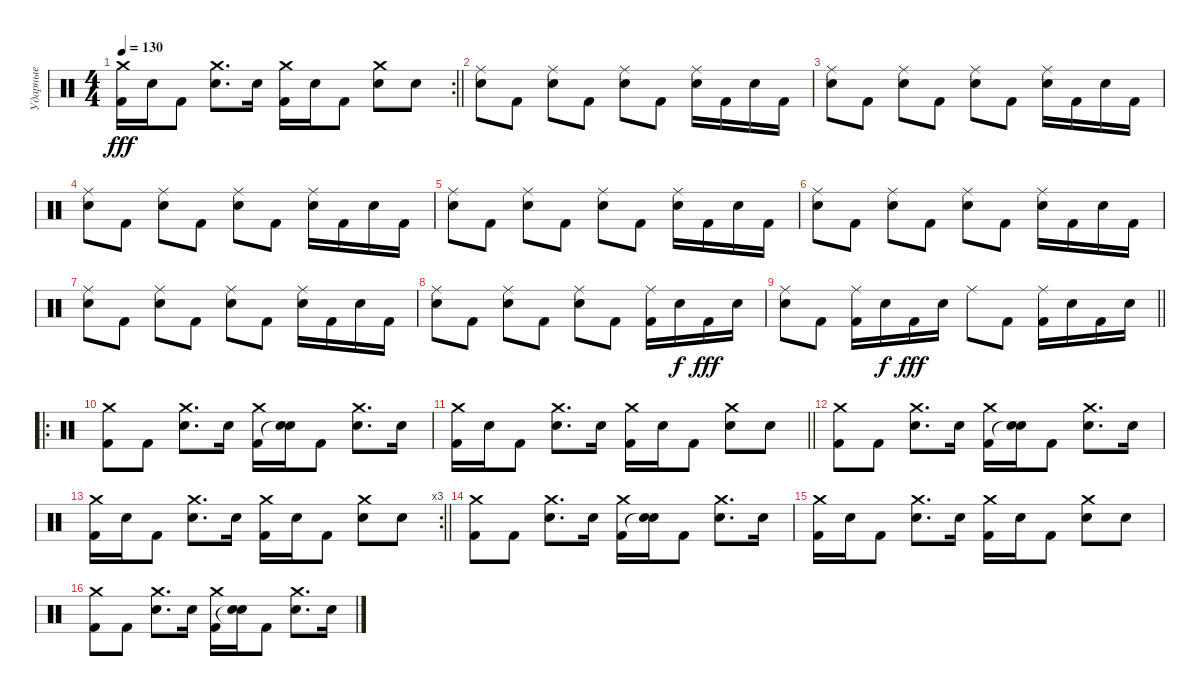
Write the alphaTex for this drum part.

\track ("Ударные" "Ударные") {instrument percussion}
\staff {score}
\articulation defaults
\rc 2
\ts (4 4)
\tempo 130
\clef neutral
\barLineRight lightlight
\ks c
("Crash medium (hit)" "Kick (hit) 2").16{dy fff} "Electric Snare (hit)".16 "Kick (hit) 2".8 ("Crash medium (hit)" "Electric Snare (hit)").8{d} "Electric Snare (hit)".16 ("Crash medium (hit)" "Kick (hit) 2").16 "Electric Snare (hit)".16 "Kick (hit) 2".8 ("Crash medium (hit)" "Electric Snare (hit)").8 "Electric Snare (hit)".8 |
("Ride (middle)" "Electric Snare (hit)").8 "Kick (hit) 2".8 ("Ride (middle)" "Electric Snare (hit)").8 "Kick (hit) 2".8 ("Ride (middle)" "Electric Snare (hit)").8 "Kick (hit) 2".8 ("Ride (middle)" "Electric Snare (hit)").16 "Kick (hit) 2".16 "Electric Snare (hit)".16 "Kick (hit) 2".16 |
("Ride (middle)" "Electric Snare (hit)").8 "Kick (hit) 2".8 ("Ride (middle)" "Electric Snare (hit)").8 "Kick (hit) 2".8 ("Ride (middle)" "Electric Snare (hit)").8 "Kick (hit) 2".8 ("Ride (middle)" "Electric Snare (hit)").16 "Kick (hit) 2".16 "Electric Snare (hit)".16 "Kick (hit) 2".16 |
("Ride (middle)" "Electric Snare (hit)").8 "Kick (hit) 2".8 ("Ride (middle)" "Electric Snare (hit)").8 "Kick (hit) 2".8 ("Ride (middle)" "Electric Snare (hit)").8 "Kick (hit) 2".8 ("Ride (middle)" "Electric Snare (hit)").16 "Kick (hit) 2".16 "Electric Snare (hit)".16 "Kick (hit) 2".16 |
("Ride (middle)" "Electric Snare (hit)").8 "Kick (hit) 2".8 ("Ride (middle)" "Electric Snare (hit)").8 "Kick (hit) 2".8 ("Ride (middle)" "Electric Snare (hit)").8 "Kick (hit) 2".8 ("Ride (middle)" "Electric Snare (hit)").16 "Kick (hit) 2".16 "Electric Snare (hit)".16 "Kick (hit) 2".16 |
("Ride (middle)" "Electric Snare (hit)").8 "Kick (hit) 2".8 ("Ride (middle)" "Electric Snare (hit)").8 "Kick (hit) 2".8 ("Ride (middle)" "Electric Snare (hit)").8 "Kick (hit) 2".8 ("Ride (middle)" "Electric Snare (hit)").16 "Kick (hit) 2".16 "Electric Snare (hit)".16 "Kick (hit) 2".16 |
("Ride (middle)" "Electric Snare (hit)").8 "Kick (hit) 2".8 ("Ride (middle)" "Electric Snare (hit)").8 "Kick (hit) 2".8 ("Ride (middle)" "Electric Snare (hit)").8 "Kick (hit) 2".8 ("Ride (middle)" "Electric Snare (hit)").16 "Kick (hit) 2".16 "Electric Snare (hit)".16 "Kick (hit) 2".16 |
("Ride (middle)" "Electric Snare (hit)").8 "Kick (hit) 2".8 ("Ride (middle)" "Electric Snare (hit)").8 "Kick (hit) 2".8 ("Ride (middle)" "Electric Snare (hit)").8 "Kick (hit) 2".8 ("Ride (middle)" "Kick (hit) 2").16 "Electric Snare (hit)".16{dy f} "Kick (hit) 2".16{dy fff} "Electric Snare (hit)".16 |
\barLineRight lightlight
("Ride (middle)" "Electric Snare (hit)").8 "Kick (hit) 2".8 ("Ride (middle)" "Kick (hit) 2").16 "Electric Snare (hit)".16{dy f} "Kick (hit) 2".16{dy fff} "Electric Snare (hit)".16 "Ride (middle)".8 "Kick (hit) 2".8 ("Ride (middle)" "Kick (hit) 2").16 "Electric Snare (hit)".16 "Kick (hit) 2".16 "Electric Snare (hit)".16 |
\ro
("Crash medium (hit)" "Kick (hit) 2").8 "Kick (hit) 2".8 ("Crash medium (hit)" "Electric Snare (hit)").8{d} "Electric Snare (hit)".16 ("Crash medium (hit)" "Kick (hit) 2").16 ("Electric Snare (hit)" "Snare (hit)"{t}).16 "Kick (hit) 2".8 ("Crash medium (hit)" "Electric Snare (hit)").8{d} "Electric Snare (hit)".16 |
\barLineRight lightlight
("Crash medium (hit)" "Kick (hit) 2").16 "Electric Snare (hit)".16 "Kick (hit) 2".8 ("Crash medium (hit)" "Electric Snare (hit)").8{d} "Electric Snare (hit)".16 ("Crash medium (hit)" "Kick (hit) 2").16 "Electric Snare (hit)".16 "Kick (hit) 2".8 ("Crash medium (hit)" "Electric Snare (hit)").8 "Electric Snare (hit)".8 |
("Crash medium (hit)" "Kick (hit) 2").8 "Kick (hit) 2".8 ("Crash medium (hit)" "Electric Snare (hit)").8{d} "Electric Snare (hit)".16 ("Crash medium (hit)" "Kick (hit) 2").16 ("Electric Snare (hit)" "Snare (hit)"{t}).16 "Kick (hit) 2".8 ("Crash medium (hit)" "Electric Snare (hit)").8{d} "Electric Snare (hit)".16 |
\rc 3
\barLineRight lightlight
("Crash medium (hit)" "Kick (hit) 2").16 "Electric Snare (hit)".16 "Kick (hit) 2".8 ("Crash medium (hit)" "Electric Snare (hit)").8{d} "Electric Snare (hit)".16 ("Crash medium (hit)" "Kick (hit) 2").16 "Electric Snare (hit)".16 "Kick (hit) 2".8 ("Crash medium (hit)" "Electric Snare (hit)").8 "Electric Snare (hit)".8 |
("Crash medium (hit)" "Kick (hit) 2").8 "Kick (hit) 2".8 ("Crash medium (hit)" "Electric Snare (hit)").8{d} "Electric Snare (hit)".16 ("Crash medium (hit)" "Kick (hit) 2").16 ("Electric Snare (hit)" "Snare (hit)"{t}).16 "Kick (hit) 2".8 ("Crash medium (hit)" "Electric Snare (hit)").8{d} "Electric Snare (hit)".16 |
("Crash medium (hit)" "Kick (hit) 2").16 "Electric Snare (hit)".16 "Kick (hit) 2".8 ("Crash medium (hit)" "Electric Snare (hit)").8{d} "Electric Snare (hit)".16 ("Crash medium (hit)" "Kick (hit) 2").16 "Electric Snare (hit)".16 "Kick (hit) 2".8 ("Crash medium (hit)" "Electric Snare (hit)").8 "Electric Snare (hit)".8 |
("Crash medium (hit)" "Kick (hit) 2").8 "Kick (hit) 2".8 ("Crash medium (hit)" "Electric Snare (hit)").8{d} "Electric Snare (hit)".16 ("Crash medium (hit)" "Kick (hit) 2").16 ("Electric Snare (hit)" "Snare (hit)"{t}).16 "Kick (hit) 2".8 ("Crash medium (hit)" "Electric Snare (hit)").8{d} "Electric Snare (hit)".16
